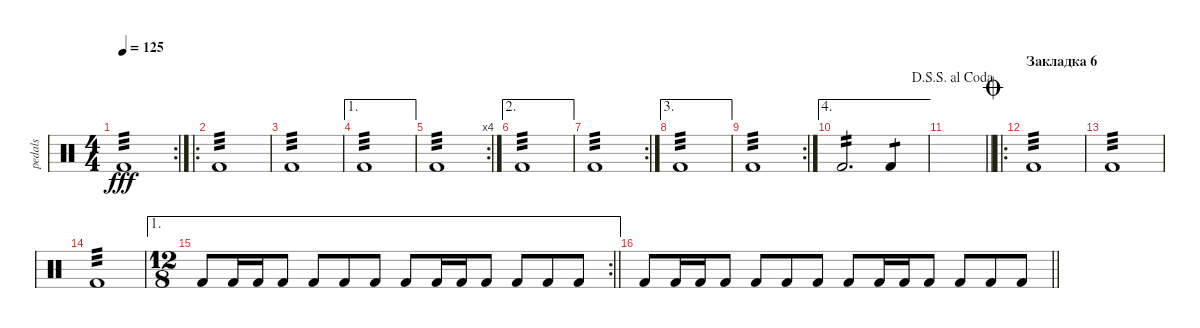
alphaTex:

\track ("pedals" "pedals") {instrument percussion}
\staff {score}
\articulation defaults
\rc 2
\ts (4 4)
\tempo 125
\clef neutral
\ks c "Kick (hit) 2".1{tp 3 dy fff}
|
\ro "Kick (hit) 2".1{tp 3}
|
"Kick (hit) 2".1{tp 3} |
\ae 1 "Kick (hit) 2".1{tp 3}
|
\rc 4 "Kick (hit) 2".1{tp 3}
|
\ae 2 "Kick (hit) 2".1{tp 3}
|
\rc 2 "Kick (hit) 2".1{tp 3}
|
\ae 3 "Kick (hit) 2".1{tp 3}
|
\rc 2 "Kick (hit) 2".1{tp 3}
|
\ae 4 "Kick (hit) 2".2{d tp 2} "Kick (hit) 2".4{tp 1}
|
\jump dalsegnosegnoalcoda
\barLineRight lightlight
|
\ro
\section ("" "Закладка 6")
\jump coda "Kick (hit) 2".1{tp 3}
|
"Kick (hit) 2".1{tp 3} |
"Kick (hit) 2".1{tp 3} |
\ae 1
\rc 2
\ts (12 8)
\barLineRight lightlight "Kick (hit) 2".8 "Kick (hit) 2".16 "Kick (hit) 2".16 "Kick (hit) 2".8 "Kick (hit) 2".8 "Kick (hit) 2".8 "Kick (hit) 2".8 "Kick (hit) 2".8 "Kick (hit) 2".16 "Kick (hit) 2".16 "Kick (hit) 2".8 "Kick (hit) 2".8 "Kick (hit) 2".8 "Kick (hit) 2".8
|
\barLineRight lightlight "Kick (hit) 2".8 "Kick (hit) 2".16 "Kick (hit) 2".16 "Kick (hit) 2".8 "Kick (hit) 2".8 "Kick (hit) 2".8 "Kick (hit) 2".8 "Kick (hit) 2".8 "Kick (hit) 2".16 "Kick (hit) 2".16 "Kick (hit) 2".8 "Kick (hit) 2".8 "Kick (hit) 2".8 "Kick (hit) 2".8
